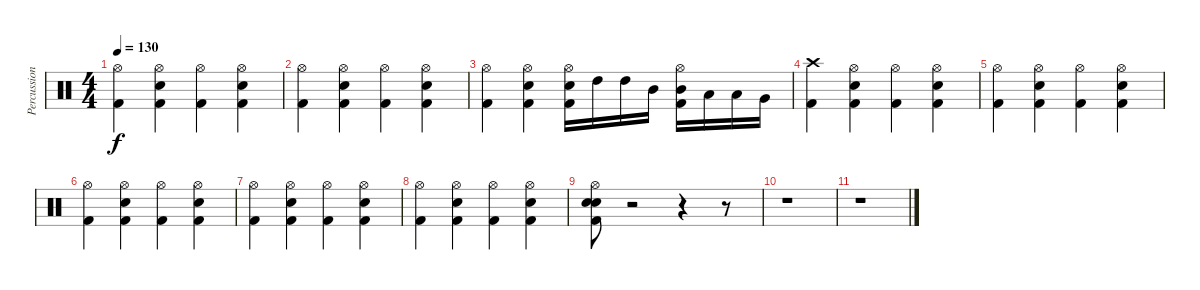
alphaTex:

\track ("Percussions" "Percussion") {instrument percussion}
\staff {score}
\articulation defaults
\ts (4 4)
\tempo 130
\clef neutral
\ks c
("Hi-Hat (open)" "Kick (hit) 2").4{dy f} ("Hi-Hat (open)" "Snare (hit) 2" "Kick (hit) 2").4 ("Hi-Hat (open)" "Kick (hit) 2").4 ("Hi-Hat (open)" "Snare (hit) 2" "Kick (hit) 2").4 |
("Hi-Hat (open)" "Kick (hit) 2").4 ("Hi-Hat (open)" "Snare (hit) 2" "Kick (hit) 2").4 ("Hi-Hat (open)" "Kick (hit) 2").4 ("Hi-Hat (open)" "Snare (hit) 2" "Kick (hit) 2").4 |
("Hi-Hat (open)" "Kick (hit) 2").4 ("Hi-Hat (open)" "Snare (hit) 2" "Kick (hit) 2").4 ("Hi-Hat (open)" "Snare (hit) 2" "Kick (hit) 2").16 "High Tom (hit)".16 "High Tom (hit)".16 "Mid Tom (hit)".16 ("Hi-Hat (open)" "Mid Tom (hit)" "Kick (hit) 2").16 "Low Tom (hit)".16 "Low Tom (hit)".16 "Very Low Tom (hit)".16 |
("Crash high (hit)" "Kick (hit) 2").4 ("Hi-Hat (open)" "Snare (hit) 2" "Kick (hit) 2").4 ("Hi-Hat (open)" "Kick (hit) 2").4 ("Hi-Hat (open)" "Snare (hit) 2" "Kick (hit) 2").4 |
("Hi-Hat (open)" "Kick (hit) 2").4 ("Hi-Hat (open)" "Snare (hit) 2" "Kick (hit) 2").4 ("Hi-Hat (open)" "Kick (hit) 2").4 ("Hi-Hat (open)" "Snare (hit) 2" "Kick (hit) 2").4 |
("Hi-Hat (open)" "Kick (hit) 2").4 ("Hi-Hat (open)" "Snare (hit) 2" "Kick (hit) 2").4 ("Hi-Hat (open)" "Kick (hit) 2").4 ("Hi-Hat (open)" "Snare (hit) 2" "Kick (hit) 2").4 |
("Hi-Hat (open)" "Kick (hit) 2").4 ("Hi-Hat (open)" "Snare (hit) 2" "Kick (hit) 2").4 ("Hi-Hat (open)" "Kick (hit) 2").4 ("Hi-Hat (open)" "Snare (hit) 2" "Kick (hit) 2").4 |
("Hi-Hat (open)" "Kick (hit) 2").4 ("Hi-Hat (open)" "Snare (hit) 2" "Kick (hit) 2").4 ("Hi-Hat (open)" "Kick (hit) 2").4 ("Hi-Hat (open)" "Snare (hit) 2" "Kick (hit) 2").4 |
("Hi-Hat (open)" "Snare (hit) 2" "Snare (hit) 2" "Kick (hit) 2").8 r.2 r.4 r.8 |
r.1 |
r.1
